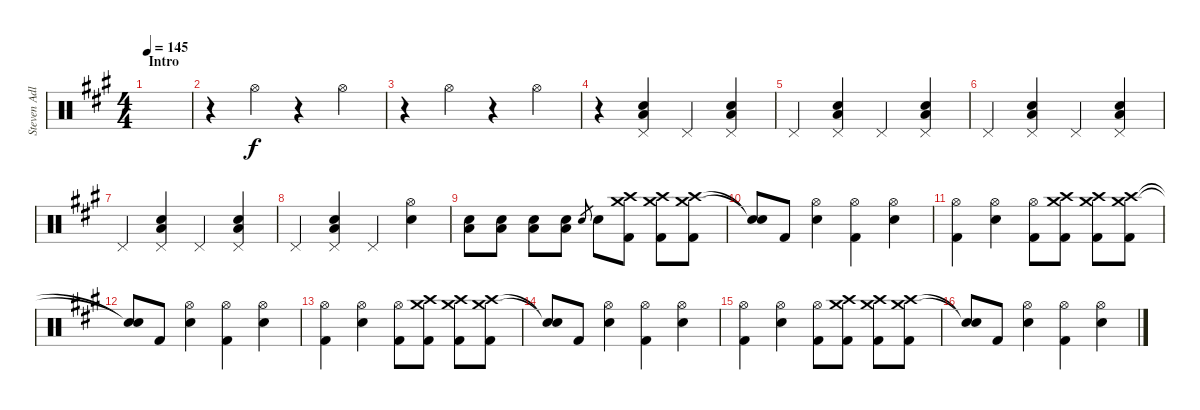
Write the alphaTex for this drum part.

\track ("Steven Adler - Drums" "Steven Adl") {instrument percussion}
\staff {score}
\articulation defaults
\ts (4 4)
\section ("" "Intro")
\tempo 145
\clef neutral
\ks a
|
r.4 "Hi-Hat (open)".4 r.4 "Hi-Hat (open)".4 |
r.4 "Hi-Hat (open)".4 r.4 "Hi-Hat (open)".4 |
r.4 ("Pedal Hi-Hat (hit)" "Low Tom (hit)" "Snare (hit) 2").4 "Pedal Hi-Hat (hit)".4 ("Pedal Hi-Hat (hit)" "Low Tom (hit)" "Snare (hit) 2").4 |
"Pedal Hi-Hat (hit)".4 ("Pedal Hi-Hat (hit)" "Low Tom (hit)" "Snare (hit) 2").4 "Pedal Hi-Hat (hit)".4 ("Pedal Hi-Hat (hit)" "Low Tom (hit)" "Snare (hit) 2").4 |
"Pedal Hi-Hat (hit)".4 ("Pedal Hi-Hat (hit)" "Low Tom (hit)" "Snare (hit) 2").4 "Pedal Hi-Hat (hit)".4 ("Pedal Hi-Hat (hit)" "Low Tom (hit)" "Snare (hit) 2").4 |
"Pedal Hi-Hat (hit)".4 ("Pedal Hi-Hat (hit)" "Low Tom (hit)" "Snare (hit) 2").4 "Pedal Hi-Hat (hit)".4 ("Pedal Hi-Hat (hit)" "Low Tom (hit)" "Snare (hit) 2").4 |
"Pedal Hi-Hat (hit)".4 ("Pedal Hi-Hat (hit)" "Low Tom (hit)" "Snare (hit) 2").4 "Pedal Hi-Hat (hit)".4 ("Hi-Hat (open)" "Snare (hit) 2").4 |
("Low Tom (hit)" "Snare (hit) 2").8 ("Low Tom (hit)" "Snare (hit) 2").8 ("Low Tom (hit)" "Snare (hit) 2").8 ("Low Tom (hit)" "Snare (hit) 2").8 "Snare (hit) 2".8{gr} "Snare (hit) 2".8 ("Crash medium (hit)" "Crash high (hit)" "Kick (hit) 2").8 ("Crash medium (hit)" "Crash high (hit)" "Kick (hit) 2").8 ("Crash medium (hit)" "Crash high (hit)" "Kick (hit) 2").8 |
("Snare (hit)"{t} "Snare (hit)"{t}).8 "Kick (hit) 2".8 ("Hi-Hat (open)" "Snare (hit) 2").4 ("Hi-Hat (open)" "Kick (hit) 2").4 ("Hi-Hat (open)" "Snare (hit) 2").4 |
("Hi-Hat (open)" "Kick (hit) 2").4 ("Hi-Hat (open)" "Snare (hit) 2").4 ("Hi-Hat (open)" "Kick (hit) 2").8 ("Crash medium (hit)" "Crash high (hit)" "Kick (hit) 2").8 ("Crash medium (hit)" "Crash high (hit)" "Kick (hit) 2").8 ("Crash medium (hit)" "Crash high (hit)" "Kick (hit) 2").8 |
("Snare (hit)"{t} "Snare (hit)"{t}).8 "Kick (hit) 2".8 ("Hi-Hat (open)" "Snare (hit) 2").4 ("Hi-Hat (open)" "Kick (hit) 2").4 ("Hi-Hat (open)" "Snare (hit) 2").4 |
("Hi-Hat (open)" "Kick (hit) 2").4 ("Hi-Hat (open)" "Snare (hit) 2").4 ("Hi-Hat (open)" "Kick (hit) 2").8 ("Crash medium (hit)" "Crash high (hit)" "Kick (hit) 2").8 ("Crash medium (hit)" "Crash high (hit)" "Kick (hit) 2").8 ("Crash medium (hit)" "Crash high (hit)" "Kick (hit) 2").8 |
("Snare (hit)"{t} "Snare (hit)"{t}).8 "Kick (hit) 2".8 ("Hi-Hat (open)" "Snare (hit) 2").4 ("Hi-Hat (open)" "Kick (hit) 2").4 ("Hi-Hat (open)" "Snare (hit) 2").4 |
("Hi-Hat (open)" "Kick (hit) 2").4 ("Hi-Hat (open)" "Snare (hit) 2").4 ("Hi-Hat (open)" "Kick (hit) 2").8 ("Crash medium (hit)" "Crash high (hit)" "Kick (hit) 2").8 ("Crash medium (hit)" "Crash high (hit)" "Kick (hit) 2").8 ("Crash medium (hit)" "Crash high (hit)" "Kick (hit) 2").8 |
("Snare (hit)"{t} "Snare (hit)"{t}).8 "Kick (hit) 2".8 ("Hi-Hat (open)" "Snare (hit) 2").4 ("Hi-Hat (open)" "Kick (hit) 2").4 ("Hi-Hat (open)" "Snare (hit) 2").4
